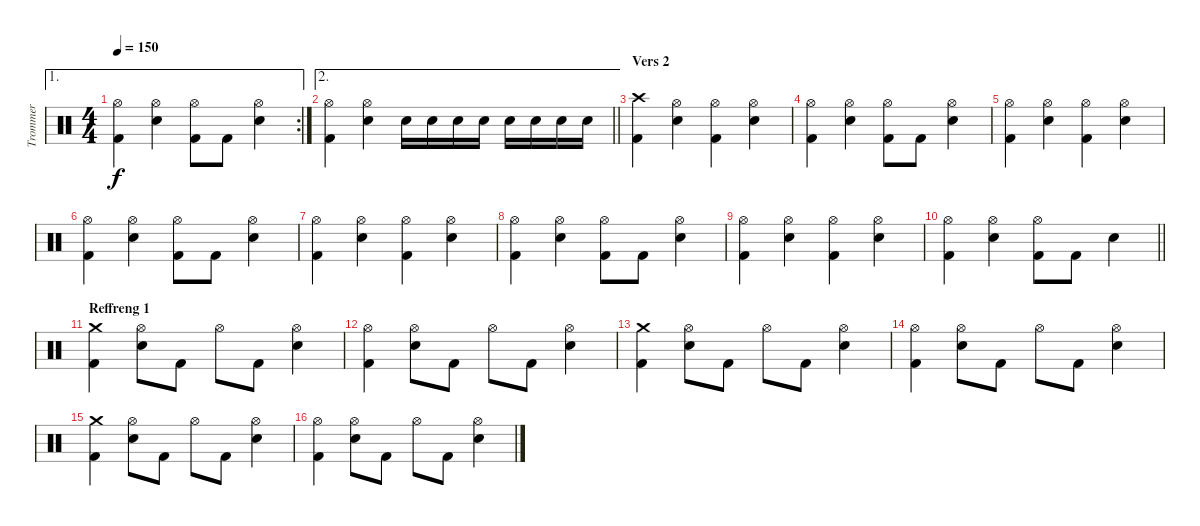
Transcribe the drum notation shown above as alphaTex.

\track ("Trommer" "Trommer") {instrument percussion}
\staff {score}
\articulation defaults
\ae 1
\rc 2
\ts (4 4)
\tempo 150
\clef neutral
\ks c
("Hi-Hat (open)" "Kick (hit) 2").4{dy f} ("Hi-Hat (open)" "Snare (hit) 2").4 ("Hi-Hat (open)" "Kick (hit) 2").8 "Kick (hit) 2".8 ("Hi-Hat (open)" "Snare (hit) 2").4 |
\ae 2
\barLineRight lightlight
("Hi-Hat (open)" "Kick (hit) 2").4 ("Hi-Hat (open)" "Snare (hit) 2").4 "Snare (hit) 2".16 "Snare (hit) 2".16 "Snare (hit) 2".16 "Snare (hit) 2".16 "Snare (hit) 2".16 "Snare (hit) 2".16 "Snare (hit) 2".16 "Snare (hit) 2".16 |
\section ("" "Vers 2")
("Crash high (hit)" "Kick (hit) 2").4 ("Hi-Hat (open)" "Snare (hit) 2").4 ("Hi-Hat (open)" "Kick (hit) 2").4 ("Hi-Hat (open)" "Snare (hit) 2").4 |
("Hi-Hat (open)" "Kick (hit) 2").4 ("Hi-Hat (open)" "Snare (hit) 2").4 ("Hi-Hat (open)" "Kick (hit) 2").8 "Kick (hit) 2".8 ("Hi-Hat (open)" "Snare (hit) 2").4 |
("Hi-Hat (open)" "Kick (hit) 2").4 ("Hi-Hat (open)" "Snare (hit) 2").4 ("Hi-Hat (open)" "Kick (hit) 2").4 ("Hi-Hat (open)" "Snare (hit) 2").4 |
("Hi-Hat (open)" "Kick (hit) 2").4 ("Hi-Hat (open)" "Snare (hit) 2").4 ("Hi-Hat (open)" "Kick (hit) 2").8 "Kick (hit) 2".8 ("Hi-Hat (open)" "Snare (hit) 2").4 |
("Hi-Hat (open)" "Kick (hit) 2").4 ("Hi-Hat (open)" "Snare (hit) 2").4 ("Hi-Hat (open)" "Kick (hit) 2").4 ("Hi-Hat (open)" "Snare (hit) 2").4 |
("Hi-Hat (open)" "Kick (hit) 2").4 ("Hi-Hat (open)" "Snare (hit) 2").4 ("Hi-Hat (open)" "Kick (hit) 2").8 "Kick (hit) 2".8 ("Hi-Hat (open)" "Snare (hit) 2").4 |
("Hi-Hat (open)" "Kick (hit) 2").4 ("Hi-Hat (open)" "Snare (hit) 2").4 ("Hi-Hat (open)" "Kick (hit) 2").4 ("Hi-Hat (open)" "Snare (hit) 2").4 |
\barLineRight lightlight
("Hi-Hat (open)" "Kick (hit) 2").4 ("Hi-Hat (open)" "Snare (hit) 2").4 ("Hi-Hat (open)" "Kick (hit) 2").8 "Kick (hit) 2".8 "Snare (hit) 2".4 |
\section ("" "Reffreng 1")
("Crash medium (hit)" "Kick (hit) 2").4 ("Hi-Hat (open)" "Snare (hit) 2").8 "Kick (hit) 2".8 "Hi-Hat (open)".8 "Kick (hit) 2".8 ("Hi-Hat (open)" "Snare (hit) 2").4 |
("Hi-Hat (open)" "Kick (hit) 2").4 ("Hi-Hat (open)" "Snare (hit) 2").8 "Kick (hit) 2".8 "Hi-Hat (open)".8 "Kick (hit) 2".8 ("Hi-Hat (open)" "Snare (hit) 2").4 |
("Crash medium (hit)" "Kick (hit) 2").4 ("Hi-Hat (open)" "Snare (hit) 2").8 "Kick (hit) 2".8 "Hi-Hat (open)".8 "Kick (hit) 2".8 ("Hi-Hat (open)" "Snare (hit) 2").4 |
("Hi-Hat (open)" "Kick (hit) 2").4 ("Hi-Hat (open)" "Snare (hit) 2").8 "Kick (hit) 2".8 "Hi-Hat (open)".8 "Kick (hit) 2".8 ("Hi-Hat (open)" "Snare (hit) 2").4 |
("Crash medium (hit)" "Kick (hit) 2").4 ("Hi-Hat (open)" "Snare (hit) 2").8 "Kick (hit) 2".8 "Hi-Hat (open)".8 "Kick (hit) 2".8 ("Hi-Hat (open)" "Snare (hit) 2").4 |
("Hi-Hat (open)" "Kick (hit) 2").4 ("Hi-Hat (open)" "Snare (hit) 2").8 "Kick (hit) 2".8 "Hi-Hat (open)".8 "Kick (hit) 2".8 ("Hi-Hat (open)" "Snare (hit) 2").4
